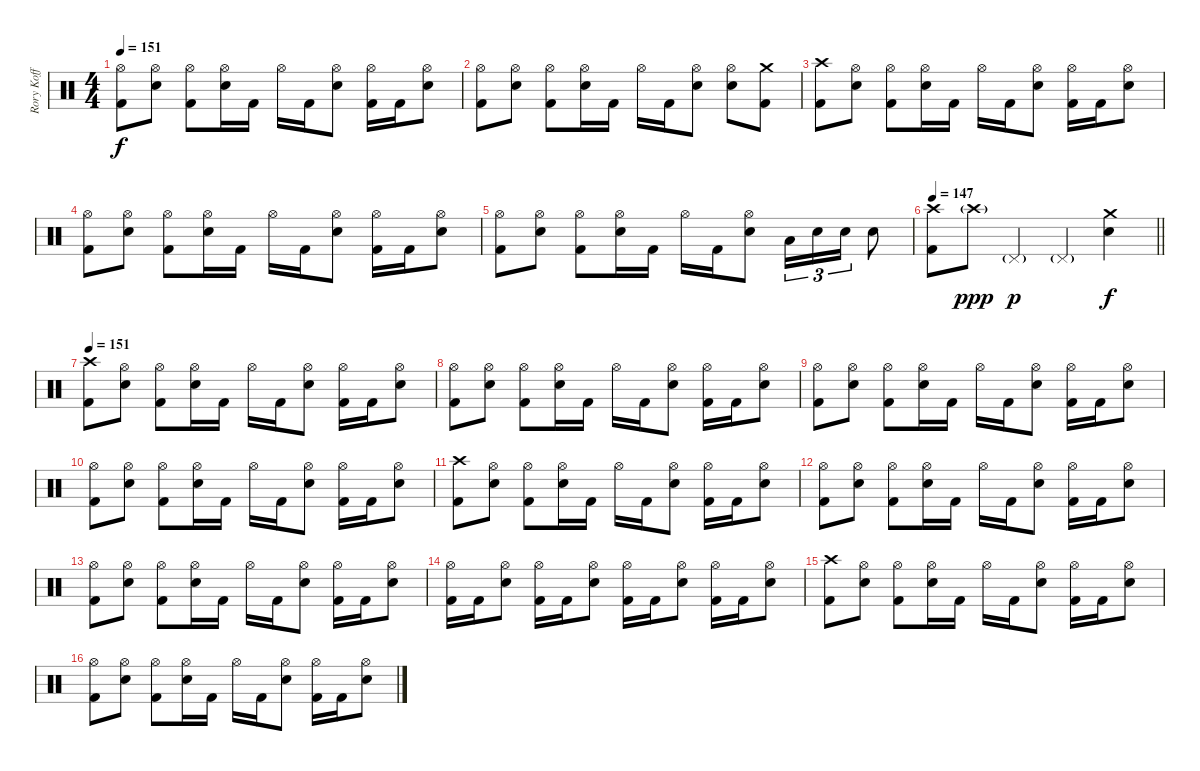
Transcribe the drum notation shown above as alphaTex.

\track ("Rory Koff" "Rory Koff") {instrument percussion}
\staff {score}
\articulation defaults
\ts (4 4)
\tempo 151
\clef neutral
\ks c
("Hi-Hat (open)" "Kick (hit) 2").8{dy f} ("Hi-Hat (open)" "Electric Snare (hit)").8 ("Hi-Hat (open)" "Kick (hit) 2").8 ("Hi-Hat (open)" "Electric Snare (hit)").16 "Kick (hit) 2".16 "Hi-Hat (open)".16 "Kick (hit) 2".16 ("Hi-Hat (open)" "Electric Snare (hit)").8 ("Hi-Hat (open)" "Kick (hit) 2").16 "Kick (hit) 2".16 ("Hi-Hat (open)" "Electric Snare (hit)").8 |
("Hi-Hat (open)" "Kick (hit) 2").8 ("Hi-Hat (open)" "Electric Snare (hit)").8 ("Hi-Hat (open)" "Kick (hit) 2").8 ("Hi-Hat (open)" "Electric Snare (hit)").16 "Kick (hit) 2".16 "Hi-Hat (open)".16 "Kick (hit) 2".16 ("Hi-Hat (open)" "Electric Snare (hit)").8 ("Hi-Hat (open)" "Electric Snare (hit)").8 ("Crash medium (hit)" "Kick (hit) 2").8 |
("Crash high (hit)" "Kick (hit) 2").8 ("Hi-Hat (open)" "Electric Snare (hit)").8 ("Hi-Hat (open)" "Kick (hit) 2").8 ("Hi-Hat (open)" "Electric Snare (hit)").16 "Kick (hit) 2".16 "Hi-Hat (open)".16 "Kick (hit) 2".16 ("Hi-Hat (open)" "Electric Snare (hit)").8 ("Hi-Hat (open)" "Kick (hit) 2").16 "Kick (hit) 2".16 ("Hi-Hat (open)" "Electric Snare (hit)").8 |
("Hi-Hat (open)" "Kick (hit) 2").8 ("Hi-Hat (open)" "Electric Snare (hit)").8 ("Hi-Hat (open)" "Kick (hit) 2").8 ("Hi-Hat (open)" "Electric Snare (hit)").16 "Kick (hit) 2".16 "Hi-Hat (open)".16 "Kick (hit) 2".16 ("Hi-Hat (open)" "Electric Snare (hit)").8 ("Hi-Hat (open)" "Kick (hit) 2").16 "Kick (hit) 2".16 ("Hi-Hat (open)" "Electric Snare (hit)").8 |
("Hi-Hat (open)" "Kick (hit) 2").8 ("Hi-Hat (open)" "Electric Snare (hit)").8 ("Hi-Hat (open)" "Kick (hit) 2").8 ("Hi-Hat (open)" "Electric Snare (hit)").16 "Kick (hit) 2".16 "Hi-Hat (open)".16 "Kick (hit) 2".16 ("Hi-Hat (open)" "Electric Snare (hit)").8 "Low Tom (hit)".16{tu (3 2)} "Electric Snare (hit)".16{tu (3 2)} "Electric Snare (hit)".16{tu (3 2)} "Electric Snare (hit)".8 |
\tempo 147
\barLineRight lightlight
("Crash high (hit)" "Kick (hit) 2").8 "Crash high (hit)"{g}.8{dy ppp} "Pedal Hi-Hat (hit)"{g}.4{dy p} "Pedal Hi-Hat (hit)"{g}.4 ("Crash medium (hit)" "Electric Snare (hit)").4{dy f} |
\section ("" "")
\tempo 151
("Crash high (hit)" "Kick (hit) 2").8 ("Hi-Hat (open)" "Electric Snare (hit)").8 ("Hi-Hat (open)" "Kick (hit) 2").8 ("Hi-Hat (open)" "Electric Snare (hit)").16 "Kick (hit) 2".16 "Hi-Hat (open)".16 "Kick (hit) 2".16 ("Hi-Hat (open)" "Electric Snare (hit)").8 ("Hi-Hat (open)" "Kick (hit) 2").16 "Kick (hit) 2".16 ("Hi-Hat (open)" "Electric Snare (hit)").8 |
("Hi-Hat (open)" "Kick (hit) 2").8 ("Hi-Hat (open)" "Electric Snare (hit)").8 ("Hi-Hat (open)" "Kick (hit) 2").8 ("Hi-Hat (open)" "Electric Snare (hit)").16 "Kick (hit) 2".16 "Hi-Hat (open)".16 "Kick (hit) 2".16 ("Hi-Hat (open)" "Electric Snare (hit)").8 ("Hi-Hat (open)" "Kick (hit) 2").16 "Kick (hit) 2".16 ("Hi-Hat (open)" "Electric Snare (hit)").8 |
("Hi-Hat (open)" "Kick (hit) 2").8 ("Hi-Hat (open)" "Electric Snare (hit)").8 ("Hi-Hat (open)" "Kick (hit) 2").8 ("Hi-Hat (open)" "Electric Snare (hit)").16 "Kick (hit) 2".16 "Hi-Hat (open)".16 "Kick (hit) 2".16 ("Hi-Hat (open)" "Electric Snare (hit)").8 ("Hi-Hat (open)" "Kick (hit) 2").16 "Kick (hit) 2".16 ("Hi-Hat (open)" "Electric Snare (hit)").8 |
("Hi-Hat (open)" "Kick (hit) 2").8 ("Hi-Hat (open)" "Electric Snare (hit)").8 ("Hi-Hat (open)" "Kick (hit) 2").8 ("Hi-Hat (open)" "Electric Snare (hit)").16 "Kick (hit) 2".16 "Hi-Hat (open)".16 "Kick (hit) 2".16 ("Hi-Hat (open)" "Electric Snare (hit)").8 ("Hi-Hat (open)" "Kick (hit) 2").16 "Kick (hit) 2".16 ("Hi-Hat (open)" "Electric Snare (hit)").8 |
("Crash high (hit)" "Kick (hit) 2").8 ("Hi-Hat (open)" "Electric Snare (hit)").8 ("Hi-Hat (open)" "Kick (hit) 2").8 ("Hi-Hat (open)" "Electric Snare (hit)").16 "Kick (hit) 2".16 "Hi-Hat (open)".16 "Kick (hit) 2".16 ("Hi-Hat (open)" "Electric Snare (hit)").8 ("Hi-Hat (open)" "Kick (hit) 2").16 "Kick (hit) 2".16 ("Hi-Hat (open)" "Electric Snare (hit)").8 |
("Hi-Hat (open)" "Kick (hit) 2").8 ("Hi-Hat (open)" "Electric Snare (hit)").8 ("Hi-Hat (open)" "Kick (hit) 2").8 ("Hi-Hat (open)" "Electric Snare (hit)").16 "Kick (hit) 2".16 "Hi-Hat (open)".16 "Kick (hit) 2".16 ("Hi-Hat (open)" "Electric Snare (hit)").8 ("Hi-Hat (open)" "Kick (hit) 2").16 "Kick (hit) 2".16 ("Hi-Hat (open)" "Electric Snare (hit)").8 |
("Hi-Hat (open)" "Kick (hit) 2").8 ("Hi-Hat (open)" "Electric Snare (hit)").8 ("Hi-Hat (open)" "Kick (hit) 2").8 ("Hi-Hat (open)" "Electric Snare (hit)").16 "Kick (hit) 2".16 "Hi-Hat (open)".16 "Kick (hit) 2".16 ("Hi-Hat (open)" "Electric Snare (hit)").8 ("Hi-Hat (open)" "Kick (hit) 2").16 "Kick (hit) 2".16 ("Hi-Hat (open)" "Electric Snare (hit)").8 |
("Hi-Hat (open)" "Kick (hit) 2").16 "Kick (hit) 2".16 ("Hi-Hat (open)" "Electric Snare (hit)").8 ("Hi-Hat (open)" "Kick (hit) 2").16 "Kick (hit) 2".16 ("Hi-Hat (open)" "Electric Snare (hit)").8 ("Hi-Hat (open)" "Kick (hit) 2").16 "Kick (hit) 2".16 ("Hi-Hat (open)" "Electric Snare (hit)").8 ("Hi-Hat (open)" "Kick (hit) 2").16 "Kick (hit) 2".16 ("Hi-Hat (open)" "Electric Snare (hit)").8 |
("Crash high (hit)" "Kick (hit) 2").8 ("Hi-Hat (open)" "Electric Snare (hit)").8 ("Hi-Hat (open)" "Kick (hit) 2").8 ("Hi-Hat (open)" "Electric Snare (hit)").16 "Kick (hit) 2".16 "Hi-Hat (open)".16 "Kick (hit) 2".16 ("Hi-Hat (open)" "Electric Snare (hit)").8 ("Hi-Hat (open)" "Kick (hit) 2").16 "Kick (hit) 2".16 ("Hi-Hat (open)" "Electric Snare (hit)").8 |
("Hi-Hat (open)" "Kick (hit) 2").8 ("Hi-Hat (open)" "Electric Snare (hit)").8 ("Hi-Hat (open)" "Kick (hit) 2").8 ("Hi-Hat (open)" "Electric Snare (hit)").16 "Kick (hit) 2".16 "Hi-Hat (open)".16 "Kick (hit) 2".16 ("Hi-Hat (open)" "Electric Snare (hit)").8 ("Hi-Hat (open)" "Kick (hit) 2").16 "Kick (hit) 2".16 ("Hi-Hat (open)" "Electric Snare (hit)").8
